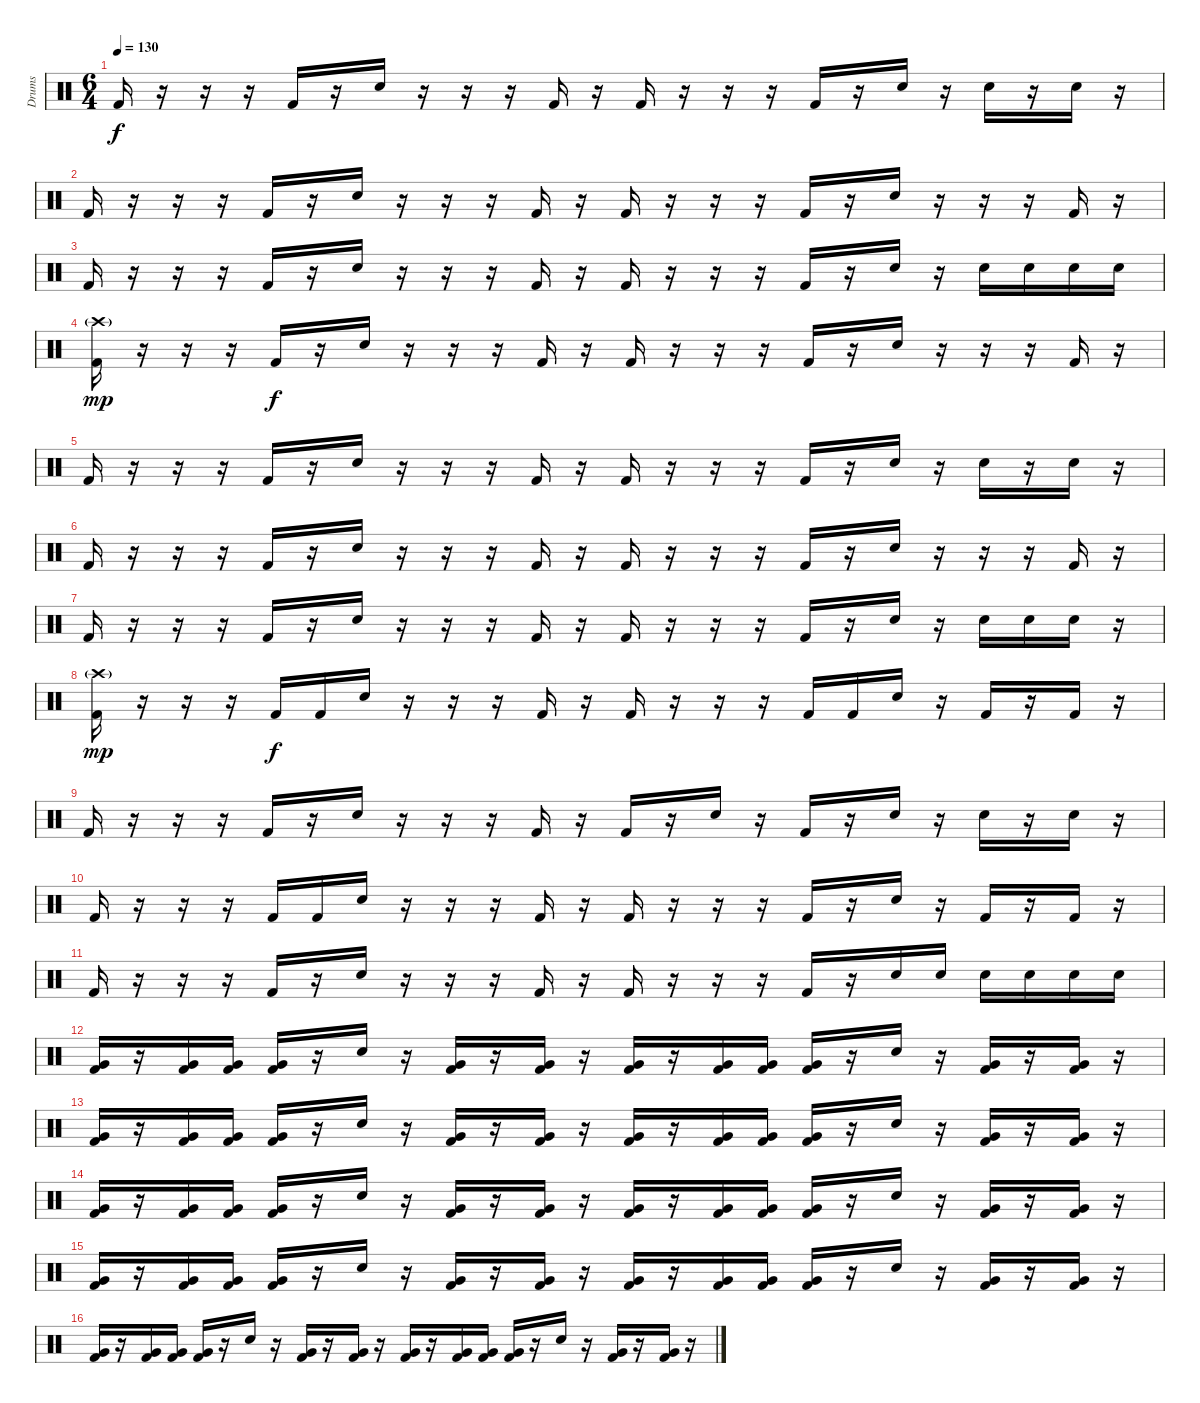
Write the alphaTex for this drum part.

\track ("Drums" "Drums") {instrument percussion}
\staff {score}
\articulation defaults
\ts (6 4)
\tempo 130
\clef neutral
\ks c "Kick (hit) 2".16{dy f}
r.16 r.16 r.16 "Kick (hit) 2".16 r.16 "Electric Snare (hit)".16 r.16 r.16 r.16 "Kick (hit) 2".16 r.16 "Kick (hit) 2".16 r.16 r.16 r.16 "Kick (hit) 2".16 r.16 "Electric Snare (hit)".16 r.16 "Electric Snare (hit)".16 r.16 "Electric Snare (hit)".16 r.16 |
"Kick (hit) 2".16 r.16 r.16 r.16 "Kick (hit) 2".16 r.16 "Electric Snare (hit)".16 r.16 r.16 r.16 "Kick (hit) 2".16 r.16 "Kick (hit) 2".16 r.16 r.16 r.16 "Kick (hit) 2".16 r.16 "Electric Snare (hit)".16 r.16 r.16 r.16 "Kick (hit) 2".16 r.16 |
"Kick (hit) 2".16 r.16 r.16 r.16 "Kick (hit) 2".16 r.16 "Electric Snare (hit)".16 r.16 r.16 r.16 "Kick (hit) 2".16 r.16 "Kick (hit) 2".16 r.16 r.16 r.16 "Kick (hit) 2".16 r.16 "Electric Snare (hit)".16 r.16 "Electric Snare (hit)".16 "Electric Snare (hit)".16 "Electric Snare (hit)".16 "Electric Snare (hit)".16 |
("Kick (hit) 2" "Crash high (hit)"{g}).16{dy mp} r.16 r.16 r.16 "Kick (hit) 2".16{dy f} r.16 "Electric Snare (hit)".16 r.16 r.16 r.16 "Kick (hit) 2".16 r.16 "Kick (hit) 2".16 r.16 r.16 r.16 "Kick (hit) 2".16 r.16 "Electric Snare (hit)".16 r.16 r.16 r.16 "Kick (hit) 2".16 r.16 |
"Kick (hit) 2".16 r.16 r.16 r.16 "Kick (hit) 2".16 r.16 "Electric Snare (hit)".16 r.16 r.16 r.16 "Kick (hit) 2".16 r.16 "Kick (hit) 2".16 r.16 r.16 r.16 "Kick (hit) 2".16 r.16 "Electric Snare (hit)".16 r.16 "Electric Snare (hit)".16 r.16 "Electric Snare (hit)".16 r.16 |
"Kick (hit) 2".16 r.16 r.16 r.16 "Kick (hit) 2".16 r.16 "Electric Snare (hit)".16 r.16 r.16 r.16 "Kick (hit) 2".16 r.16 "Kick (hit) 2".16 r.16 r.16 r.16 "Kick (hit) 2".16 r.16 "Electric Snare (hit)".16 r.16 r.16 r.16 "Kick (hit) 2".16 r.16 |
"Kick (hit) 2".16 r.16 r.16 r.16 "Kick (hit) 2".16 r.16 "Electric Snare (hit)".16 r.16 r.16 r.16 "Kick (hit) 2".16 r.16 "Kick (hit) 2".16 r.16 r.16 r.16 "Kick (hit) 2".16 r.16 "Electric Snare (hit)".16 r.16 "Electric Snare (hit)".16 "Electric Snare (hit)".16 "Electric Snare (hit)".16 r.16 |
("Kick (hit) 2" "Crash high (hit)"{g}).16{dy mp} r.16 r.16 r.16 "Kick (hit) 2".16{dy f} "Kick (hit) 2".16 "Electric Snare (hit)".16 r.16 r.16 r.16 "Kick (hit) 2".16 r.16 "Kick (hit) 2".16 r.16 r.16 r.16 "Kick (hit) 2".16 "Kick (hit) 2".16 "Electric Snare (hit)".16 r.16 "Kick (hit) 2".16 r.16 "Kick (hit) 2".16 r.16 |
"Kick (hit) 2".16 r.16 r.16 r.16 "Kick (hit) 2".16 r.16 "Electric Snare (hit)".16 r.16 r.16 r.16 "Kick (hit) 2".16 r.16 "Kick (hit) 2".16 r.16 "Electric Snare (hit)".16 r.16 "Kick (hit) 2".16 r.16 "Electric Snare (hit)".16 r.16 "Electric Snare (hit)".16 r.16 "Electric Snare (hit)".16 r.16 |
"Kick (hit) 2".16 r.16 r.16 r.16 "Kick (hit) 2".16 "Kick (hit) 2".16 "Electric Snare (hit)".16 r.16 r.16 r.16 "Kick (hit) 2".16 r.16 "Kick (hit) 2".16 r.16 r.16 r.16 "Kick (hit) 2".16 r.16 "Electric Snare (hit)".16 r.16 "Kick (hit) 2".16 r.16 "Kick (hit) 2".16 r.16 |
"Kick (hit) 2".16 r.16 r.16 r.16 "Kick (hit) 2".16 r.16 "Electric Snare (hit)".16 r.16 r.16 r.16 "Kick (hit) 2".16 r.16 "Kick (hit) 2".16 r.16 r.16 r.16 "Kick (hit) 2".16 r.16 "Electric Snare (hit)".16 "Electric Snare (hit)".16 "Electric Snare (hit)".16 "Electric Snare (hit)".16 "Electric Snare (hit)".16 "Electric Snare (hit)".16 |
("Very Low Tom (hit)" "Kick (hit) 2").16 r.16 ("Very Low Tom (hit)" "Kick (hit) 2").16 ("Very Low Tom (hit)" "Kick (hit) 2").16 ("Very Low Tom (hit)" "Kick (hit) 2").16 r.16 "Electric Snare (hit)".16 r.16 ("Very Low Tom (hit)" "Kick (hit) 2").16 r.16 ("Very Low Tom (hit)" "Kick (hit) 2").16 r.16 ("Very Low Tom (hit)" "Kick (hit) 2").16 r.16 ("Very Low Tom (hit)" "Kick (hit) 2").16 ("Very Low Tom (hit)" "Kick (hit) 2").16 ("Very Low Tom (hit)" "Kick (hit) 2").16 r.16 "Electric Snare (hit)".16 r.16 ("Very Low Tom (hit)" "Kick (hit) 2").16 r.16 ("Very Low Tom (hit)" "Kick (hit) 2").16 r.16 |
("Very Low Tom (hit)" "Kick (hit) 2").16 r.16 ("Very Low Tom (hit)" "Kick (hit) 2").16 ("Very Low Tom (hit)" "Kick (hit) 2").16 ("Very Low Tom (hit)" "Kick (hit) 2").16 r.16 "Electric Snare (hit)".16 r.16 ("Very Low Tom (hit)" "Kick (hit) 2").16 r.16 ("Very Low Tom (hit)" "Kick (hit) 2").16 r.16 ("Very Low Tom (hit)" "Kick (hit) 2").16 r.16 ("Very Low Tom (hit)" "Kick (hit) 2").16 ("Very Low Tom (hit)" "Kick (hit) 2").16 ("Very Low Tom (hit)" "Kick (hit) 2").16 r.16 "Electric Snare (hit)".16 r.16 ("Very Low Tom (hit)" "Kick (hit) 2").16 r.16 ("Very Low Tom (hit)" "Kick (hit) 2").16 r.16 |
("Very Low Tom (hit)" "Kick (hit) 2").16 r.16 ("Very Low Tom (hit)" "Kick (hit) 2").16 ("Very Low Tom (hit)" "Kick (hit) 2").16 ("Very Low Tom (hit)" "Kick (hit) 2").16 r.16 "Electric Snare (hit)".16 r.16 ("Very Low Tom (hit)" "Kick (hit) 2").16 r.16 ("Very Low Tom (hit)" "Kick (hit) 2").16 r.16 ("Very Low Tom (hit)" "Kick (hit) 2").16 r.16 ("Very Low Tom (hit)" "Kick (hit) 2").16 ("Very Low Tom (hit)" "Kick (hit) 2").16 ("Very Low Tom (hit)" "Kick (hit) 2").16 r.16 "Electric Snare (hit)".16 r.16 ("Very Low Tom (hit)" "Kick (hit) 2").16 r.16 ("Very Low Tom (hit)" "Kick (hit) 2").16 r.16 |
("Very Low Tom (hit)" "Kick (hit) 2").16 r.16 ("Very Low Tom (hit)" "Kick (hit) 2").16 ("Very Low Tom (hit)" "Kick (hit) 2").16 ("Very Low Tom (hit)" "Kick (hit) 2").16 r.16 "Electric Snare (hit)".16 r.16 ("Very Low Tom (hit)" "Kick (hit) 2").16 r.16 ("Very Low Tom (hit)" "Kick (hit) 2").16 r.16 ("Very Low Tom (hit)" "Kick (hit) 2").16 r.16 ("Very Low Tom (hit)" "Kick (hit) 2").16 ("Very Low Tom (hit)" "Kick (hit) 2").16 ("Very Low Tom (hit)" "Kick (hit) 2").16 r.16 "Electric Snare (hit)".16 r.16 ("Very Low Tom (hit)" "Kick (hit) 2").16 r.16 ("Very Low Tom (hit)" "Kick (hit) 2").16 r.16 |
("Very Low Tom (hit)" "Kick (hit) 2").16 r.16 ("Very Low Tom (hit)" "Kick (hit) 2").16 ("Very Low Tom (hit)" "Kick (hit) 2").16 ("Very Low Tom (hit)" "Kick (hit) 2").16 r.16 "Electric Snare (hit)".16 r.16 ("Very Low Tom (hit)" "Kick (hit) 2").16 r.16 ("Very Low Tom (hit)" "Kick (hit) 2").16 r.16 ("Very Low Tom (hit)" "Kick (hit) 2").16 r.16 ("Very Low Tom (hit)" "Kick (hit) 2").16 ("Very Low Tom (hit)" "Kick (hit) 2").16 ("Very Low Tom (hit)" "Kick (hit) 2").16 r.16 "Electric Snare (hit)".16 r.16 ("Very Low Tom (hit)" "Kick (hit) 2").16 r.16 ("Very Low Tom (hit)" "Kick (hit) 2").16 r.16
